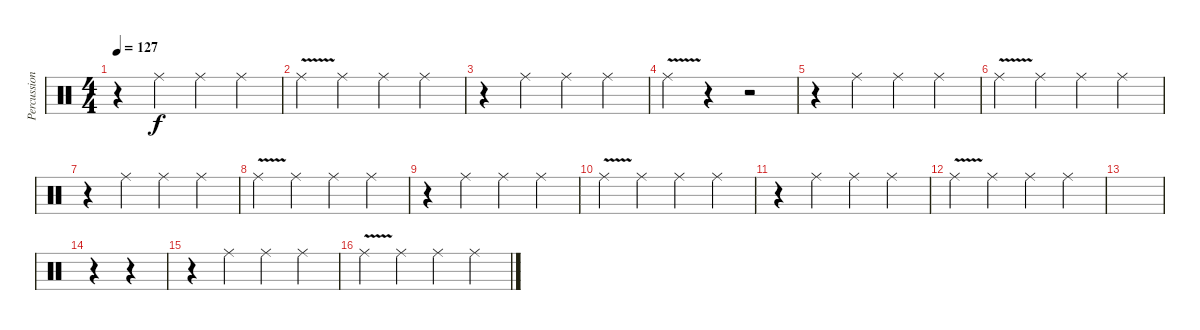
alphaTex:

\track ("Percussion" "Percussion") {instrument percussion}
\staff {score}
\articulation defaults
\ts (4 4)
\tempo 127
\clef neutral
\ks c
r.4{dy f} "Ride (middle)".4 "Ride (middle)".4 "Ride (middle)".4 |
"Ride (middle)"{v}.4 "Ride (middle)".4 "Ride (middle)".4 "Ride (middle)".4 |
r.4 "Ride (middle)".4 "Ride (middle)".4 "Ride (middle)".4 |
"Ride (middle)"{v}.4 r.4 r.2 |
r.4 "Ride (middle)".4 "Ride (middle)".4 "Ride (middle)".4 |
"Ride (middle)"{v}.4 "Ride (middle)".4 "Ride (middle)".4 "Ride (middle)".4 |
r.4 "Ride (middle)".4 "Ride (middle)".4 "Ride (middle)".4 |
"Ride (middle)"{v}.4 "Ride (middle)".4 "Ride (middle)".4 "Ride (middle)".4 |
r.4 "Ride (middle)".4 "Ride (middle)".4 "Ride (middle)".4 |
"Ride (middle)"{v}.4 "Ride (middle)".4 "Ride (middle)".4 "Ride (middle)".4 |
r.4 "Ride (middle)".4 "Ride (middle)".4 "Ride (middle)".4 |
"Ride (middle)"{v}.4 "Ride (middle)".4 "Ride (middle)".4 "Ride (middle)".4 |
|
r.4 r.4 |
r.4 "Ride (middle)".4 "Ride (middle)".4 "Ride (middle)".4 |
"Ride (middle)"{v}.4 "Ride (middle)".4 "Ride (middle)".4 "Ride (middle)".4
